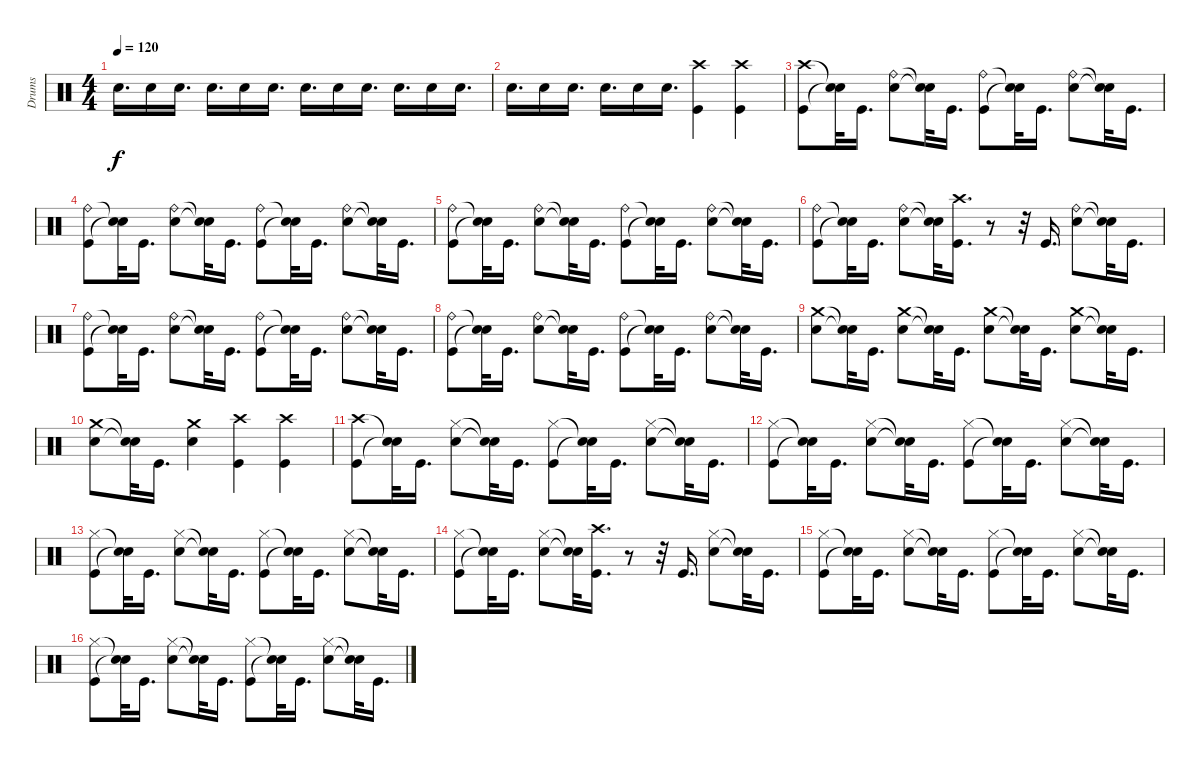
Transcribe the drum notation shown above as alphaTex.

\track ("Drums" "Drums") {instrument percussion}
\staff {score}
\articulation defaults
\ts (4 4)
\tempo 120
\clef neutral
\ks c "Snare (hit) 2".16{d dy f} "Snare (hit) 2".16 "Snare (hit) 2".16{d} "Snare (hit) 2".16{d} "Snare (hit) 2".16 "Snare (hit) 2".16{d} "Snare (hit) 2".16{d} "Snare (hit) 2".16 "Snare (hit) 2".16{d} "Snare (hit) 2".16{d} "Snare (hit) 2".16 "Snare (hit) 2".16{d}
|
"Snare (hit) 2".16{d} "Snare (hit) 2".16 "Snare (hit) 2".16{d} "Snare (hit) 2".16{d} "Snare (hit) 2".16 "Snare (hit) 2".16{d} ("Kick (hit)" "Crash high (hit)").4 ("Crash high (hit)" "Kick (hit)").4 |
("Kick (hit)" "Crash high (hit)").8 ("Snare (hit)"{t} "Snare (hit)"{t}).32 "Kick (hit)".16{d} ("Snare (hit) 2" "Ride (bell)").8 ("Snare (hit)"{t} "Snare (hit)"{t}).32 "Kick (hit)".16{d} ("Kick (hit)" "Ride (bell)").8 ("Snare (hit)"{t} "Snare (hit)"{t}).32 "Kick (hit)".16{d} ("Snare (hit) 2" "Ride (bell)").8 ("Snare (hit)"{t} "Snare (hit)"{t}).32 "Kick (hit)".16{d} |
("Kick (hit)" "Ride (bell)").8 ("Snare (hit)"{t} "Snare (hit)"{t}).32 "Kick (hit)".16{d} ("Snare (hit) 2" "Ride (bell)").8 ("Snare (hit)"{t} "Snare (hit)"{t}).32 "Kick (hit)".16{d} ("Ride (bell)" "Kick (hit)").8 ("Snare (hit)"{t} "Snare (hit)"{t}).32 "Kick (hit)".16{d} ("Snare (hit) 2" "Ride (bell)").8 ("Snare (hit)"{t} "Snare (hit)"{t}).32 "Kick (hit)".16{d} |
("Ride (bell)" "Kick (hit)").8 ("Snare (hit)"{t} "Snare (hit)"{t}).32 "Kick (hit)".16{d} ("Snare (hit) 2" "Ride (bell)").8 ("Snare (hit)"{t} "Snare (hit)"{t}).32 "Kick (hit)".16{d} ("Kick (hit)" "Ride (bell)").8 ("Snare (hit)"{t} "Snare (hit)"{t}).32 "Kick (hit)".16{d} ("Snare (hit) 2" "Ride (bell)").8 ("Snare (hit)"{t} "Snare (hit)"{t}).32 "Kick (hit)".16{d} |
("Kick (hit)" "Ride (bell)").8 ("Snare (hit)"{t} "Snare (hit)"{t}).32 "Kick (hit)".16{d} ("Ride (bell)" "Snare (hit) 2").8 ("Snare (hit)"{t} "Snare (hit)"{t}).32 ("Kick (hit)" "Crash high (hit)").16{d} r.8 r.32 "Kick (hit)".16{d} ("Snare (hit) 2" "Ride (bell)").8 ("Snare (hit)"{t} "Snare (hit)"{t}).32 "Kick (hit)".16{d} |
("Ride (bell)" "Kick (hit)").8 ("Snare (hit)"{t} "Snare (hit)"{t}).32 "Kick (hit)".16{d} ("Ride (bell)" "Snare (hit) 2").8 ("Snare (hit)"{t} "Snare (hit)"{t}).32 "Kick (hit)".16{d} ("Ride (bell)" "Kick (hit)").8 ("Snare (hit)"{t} "Snare (hit)"{t}).32 "Kick (hit)".16{d} ("Ride (bell)" "Snare (hit) 2").8 ("Snare (hit)"{t} "Snare (hit)"{t}).32 "Kick (hit)".16{d} |
("Ride (bell)" "Kick (hit)").8 ("Snare (hit)"{t} "Snare (hit)"{t}).32 "Kick (hit)".16{d} ("Ride (bell)" "Snare (hit) 2").8 ("Snare (hit)"{t} "Snare (hit)"{t}).32 "Kick (hit)".16{d} ("Ride (bell)" "Kick (hit)").8 ("Snare (hit)"{t} "Snare (hit)"{t}).32 "Kick (hit)".16{d} ("Ride (bell)" "Snare (hit) 2").8 ("Snare (hit)"{t} "Snare (hit)"{t}).32 "Kick (hit)".16{d} |
("Snare (hit) 2" "Crash medium (hit)").8 ("Snare (hit)"{t} "Snare (hit)"{t}).32 "Kick (hit)".16{d} ("Crash medium (hit)" "Snare (hit) 2").8 ("Snare (hit)"{t} "Snare (hit)"{t}).32 "Kick (hit)".16{d} ("Crash medium (hit)" "Snare (hit) 2").8 ("Snare (hit)"{t} "Snare (hit)"{t}).32 "Kick (hit)".16{d} ("Crash medium (hit)" "Snare (hit) 2").8 ("Snare (hit)"{t} "Snare (hit)"{t}).32 "Kick (hit)".16{d} |
("Crash medium (hit)" "Snare (hit) 2").8 ("Snare (hit)"{t} "Snare (hit)"{t}).32 "Kick (hit)".16{d} ("Snare (hit) 2" "Crash medium (hit)").4 ("Crash high (hit)" "Kick (hit)").4 ("Kick (hit)" "Crash high (hit)").4 |
("Kick (hit)" "Crash high (hit)").8 ("Snare (hit)"{t} "Snare (hit)"{t}).32 "Kick (hit)".16{d} ("Hi-Hat (closed)" "Snare (hit) 2").8 ("Snare (hit)"{t} "Snare (hit)"{t}).32 "Kick (hit)".16{d} ("Hi-Hat (closed)" "Kick (hit)").8 ("Snare (hit)"{t} "Snare (hit)"{t}).32 "Kick (hit)".16{d} ("Hi-Hat (closed)" "Snare (hit) 2").8 ("Snare (hit)"{t} "Snare (hit)"{t}).32 "Kick (hit)".16{d} |
("Hi-Hat (closed)" "Kick (hit)").8 ("Snare (hit)"{t} "Snare (hit)"{t}).32 "Kick (hit)".16{d} ("Hi-Hat (closed)" "Snare (hit) 2").8 ("Snare (hit)"{t} "Snare (hit)"{t}).32 "Kick (hit)".16{d} ("Hi-Hat (closed)" "Kick (hit)").8 ("Snare (hit)"{t} "Snare (hit)"{t}).32 "Kick (hit)".16{d} ("Snare (hit) 2" "Hi-Hat (closed)").8 ("Snare (hit)"{t} "Snare (hit)"{t}).32 "Kick (hit)".16{d} |
("Kick (hit)" "Hi-Hat (closed)").8 ("Snare (hit)"{t} "Snare (hit)"{t}).32 "Kick (hit)".16{d} ("Snare (hit) 2" "Hi-Hat (closed)").8 ("Snare (hit)"{t} "Snare (hit)"{t}).32 "Kick (hit)".16{d} ("Hi-Hat (closed)" "Kick (hit)").8 ("Snare (hit)"{t} "Snare (hit)"{t}).32 "Kick (hit)".16{d} ("Hi-Hat (closed)" "Snare (hit) 2").8 ("Snare (hit)"{t} "Snare (hit)"{t}).32 "Kick (hit)".16{d} |
("Kick (hit)" "Hi-Hat (closed)").8 ("Snare (hit)"{t} "Snare (hit)"{t}).32 "Kick (hit)".16{d} ("Hi-Hat (closed)" "Snare (hit) 2").8 ("Snare (hit)"{t} "Snare (hit)"{t}).32 ("Kick (hit)" "Crash high (hit)").16{d} r.8 r.32 "Kick (hit)".16{d} ("Hi-Hat (closed)" "Snare (hit) 2").8 ("Snare (hit)"{t} "Snare (hit)"{t}).32 "Kick (hit)".16{d} |
("Kick (hit)" "Hi-Hat (closed)").8 ("Snare (hit)"{t} "Snare (hit)"{t}).32 "Kick (hit)".16{d} ("Hi-Hat (closed)" "Snare (hit) 2").8 ("Snare (hit)"{t} "Snare (hit)"{t}).32 "Kick (hit)".16{d} ("Kick (hit)" "Hi-Hat (closed)").8 ("Snare (hit)"{t} "Snare (hit)"{t}).32 "Kick (hit)".16{d} ("Hi-Hat (closed)" "Snare (hit) 2").8 ("Snare (hit)"{t} "Snare (hit)"{t}).32 "Kick (hit)".16{d} |
("Hi-Hat (closed)" "Kick (hit)").8 ("Snare (hit)"{t} "Snare (hit)"{t}).32 "Kick (hit)".16{d} ("Hi-Hat (closed)" "Snare (hit) 2").8 ("Snare (hit)"{t} "Snare (hit)"{t}).32 "Kick (hit)".16{d} ("Kick (hit)" "Hi-Hat (closed)").8 ("Snare (hit)"{t} "Snare (hit)"{t}).32 "Kick (hit)".16{d} ("Snare (hit) 2" "Hi-Hat (closed)").8 ("Snare (hit)"{t} "Snare (hit)"{t}).32 "Kick (hit)".16{d}
